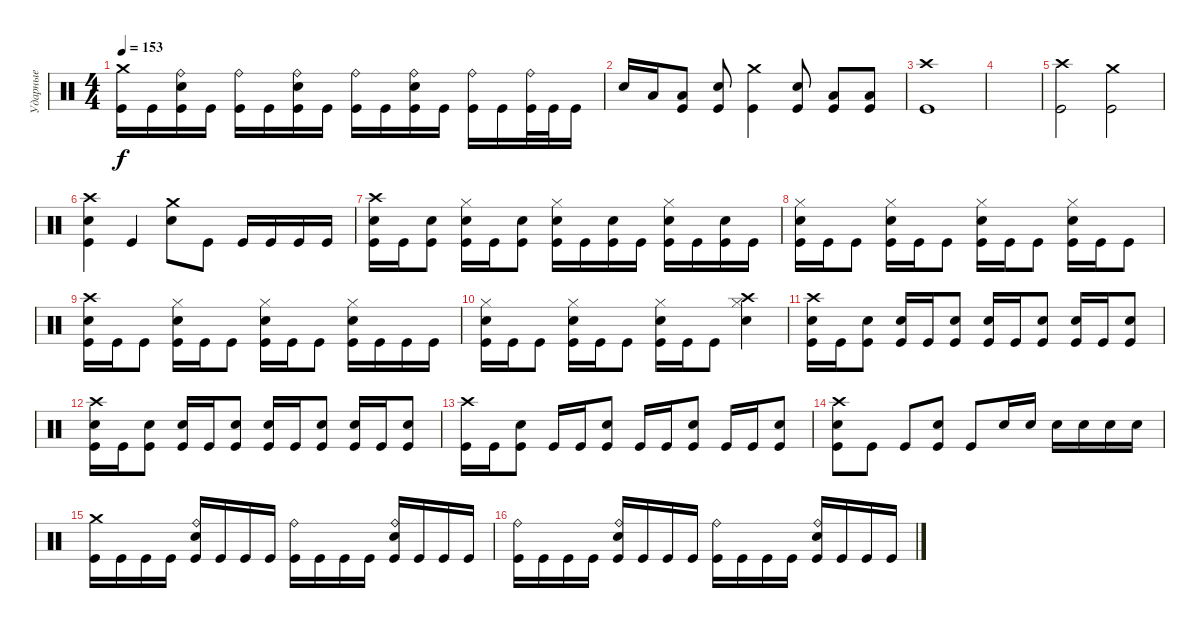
\track ("Ударные" "Ударные") {instrument percussion}
\staff {score}
\articulation defaults
\ts (4 4)
\tempo 153
\clef neutral
\ks c
("Crash medium (hit)" "Kick (hit)").16{dy f} "Kick (hit)".16 ("Ride (bell)" "Electric Snare (hit)" "Kick (hit)").16 "Kick (hit)".16 ("Ride (bell)" "Kick (hit)").16 "Kick (hit)".16 ("Ride (bell)" "Electric Snare (hit)" "Kick (hit)").16 "Kick (hit)".16 ("Ride (bell)" "Kick (hit)").16 "Kick (hit)".16 ("Ride (bell)" "Electric Snare (hit)" "Kick (hit)").16 "Kick (hit)".16 ("Ride (bell)" "Kick (hit)").16 "Kick (hit)".16 ("Ride (bell)" "Kick (hit)").32 "Kick (hit)".32 "Kick (hit)".16 |
"Electric Snare (hit)".16 "Low Tom (hit)".16 ("Low Tom (hit)" "Kick (hit)").8 ("Electric Snare (hit)" "Kick (hit)").8 ("Crash medium (hit)" "Kick (hit)").4 ("Electric Snare (hit)" "Kick (hit)").8 ("Low Tom (hit)" "Kick (hit)").8 ("Low Tom (hit)" "Kick (hit)").8 |
("Kick (hit)" "Crash high (hit)").1 |
|
("Kick (hit)" "Crash high (hit)").2 ("Crash medium (hit)" "Kick (hit)").2 |
("Kick (hit)" "Electric Snare (hit)" "Crash high (hit)").4 "Kick (hit)".4 ("Crash medium (hit)" "Electric Snare (hit)").8 "Kick (hit)".8 "Kick (hit)".16 "Kick (hit)".16 "Kick (hit)".16 "Kick (hit)".16 |
("Crash high (hit)" "Electric Snare (hit)" "Kick (hit)").16 "Kick (hit)".16 ("Electric Snare (hit)" "Kick (hit)").8 ("Hi-Hat (closed)" "Electric Snare (hit)" "Kick (hit)").16 "Kick (hit)".16 ("Electric Snare (hit)" "Kick (hit)").8 ("Hi-Hat (closed)" "Electric Snare (hit)" "Kick (hit)").16 "Kick (hit)".16 ("Electric Snare (hit)" "Kick (hit)").16 "Kick (hit)".16 ("Hi-Hat (closed)" "Electric Snare (hit)" "Kick (hit)").16 "Kick (hit)".16 ("Electric Snare (hit)" "Kick (hit)").16 "Kick (hit)".16 |
("Hi-Hat (closed)" "Electric Snare (hit)" "Kick (hit)").16 "Kick (hit)".16 "Kick (hit)".8 ("Hi-Hat (closed)" "Electric Snare (hit)" "Kick (hit)").16 "Kick (hit)".16 "Kick (hit)".8 ("Hi-Hat (closed)" "Electric Snare (hit)" "Kick (hit)").16 "Kick (hit)".16 "Kick (hit)".8 ("Hi-Hat (closed)" "Electric Snare (hit)" "Kick (hit)").16 "Kick (hit)".16 "Kick (hit)".8 |
("Crash high (hit)" "Electric Snare (hit)" "Kick (hit)").16 "Kick (hit)".16 "Kick (hit)".8 ("Hi-Hat (closed)" "Electric Snare (hit)" "Kick (hit)").16 "Kick (hit)".16 "Kick (hit)".8 ("Hi-Hat (closed)" "Electric Snare (hit)" "Kick (hit)").16 "Kick (hit)".16 "Kick (hit)".8 ("Hi-Hat (closed)" "Electric Snare (hit)" "Kick (hit)").16 "Kick (hit)".16 "Kick (hit)".16 "Kick (hit)".16 |
("Hi-Hat (closed)" "Electric Snare (hit)" "Kick (hit)").16 "Kick (hit)".16 "Kick (hit)".8 ("Hi-Hat (closed)" "Electric Snare (hit)" "Kick (hit)").16 "Kick (hit)".16 "Kick (hit)".8 ("Hi-Hat (closed)" "Electric Snare (hit)" "Kick (hit)").16 "Kick (hit)".16 "Kick (hit)".8 ("Crash high (hit)" "Hi-Hat (closed)" "Electric Snare (hit)").4 |
("Crash high (hit)" "Electric Snare (hit)" "Kick (hit)").16 "Kick (hit)".16 ("Electric Snare (hit)" "Kick (hit)").8 ("Electric Snare (hit)" "Kick (hit)").16 "Kick (hit)".16 ("Electric Snare (hit)" "Kick (hit)").8 ("Electric Snare (hit)" "Kick (hit)").16 "Kick (hit)".16 ("Electric Snare (hit)" "Kick (hit)").8 ("Electric Snare (hit)" "Kick (hit)").16 "Kick (hit)".16 ("Electric Snare (hit)" "Kick (hit)").8 |
("Crash high (hit)" "Electric Snare (hit)" "Kick (hit)").16 "Kick (hit)".16 ("Electric Snare (hit)" "Kick (hit)").8 ("Electric Snare (hit)" "Kick (hit)").16 "Kick (hit)".16 ("Electric Snare (hit)" "Kick (hit)").8 ("Electric Snare (hit)" "Kick (hit)").16 "Kick (hit)".16 ("Electric Snare (hit)" "Kick (hit)").8 ("Electric Snare (hit)" "Kick (hit)").16 "Kick (hit)".16 ("Electric Snare (hit)" "Kick (hit)").8 |
("Crash high (hit)" "Kick (hit)").16 "Kick (hit)".16 ("Electric Snare (hit)" "Kick (hit)").8 "Kick (hit)".16 "Kick (hit)".16 ("Electric Snare (hit)" "Kick (hit)").8 "Kick (hit)".16 "Kick (hit)".16 ("Electric Snare (hit)" "Kick (hit)").8 "Kick (hit)".16 "Kick (hit)".16 ("Electric Snare (hit)" "Kick (hit)").8 |
("Crash high (hit)" "Electric Snare (hit)" "Kick (hit)").8 "Kick (hit)".8 "Kick (hit)".8 ("Electric Snare (hit)" "Kick (hit)").8 "Kick (hit)".8 "Electric Snare (hit)".16 "Electric Snare (hit)".16 "Electric Snare (hit)".16 "Electric Snare (hit)".16 "Electric Snare (hit)".16 "Electric Snare (hit)".16 |
("Crash medium (hit)" "Kick (hit)").16 "Kick (hit)".16 "Kick (hit)".16 "Kick (hit)".16 ("Ride (bell)" "Electric Snare (hit)" "Kick (hit)").16 "Kick (hit)".16 "Kick (hit)".16 "Kick (hit)".16 ("Ride (bell)" "Kick (hit)").16 "Kick (hit)".16 "Kick (hit)".16 "Kick (hit)".16 ("Ride (bell)" "Electric Snare (hit)" "Kick (hit)").16 "Kick (hit)".16 "Kick (hit)".16 "Kick (hit)".16 |
("Ride (bell)" "Kick (hit)").16 "Kick (hit)".16 "Kick (hit)".16 "Kick (hit)".16 ("Ride (bell)" "Electric Snare (hit)" "Kick (hit)").16 "Kick (hit)".16 "Kick (hit)".16 "Kick (hit)".16 ("Ride (bell)" "Kick (hit)").16 "Kick (hit)".16 "Kick (hit)".16 "Kick (hit)".16 ("Ride (bell)" "Electric Snare (hit)" "Kick (hit)").16 "Kick (hit)".16 "Kick (hit)".16 "Kick (hit)".16
